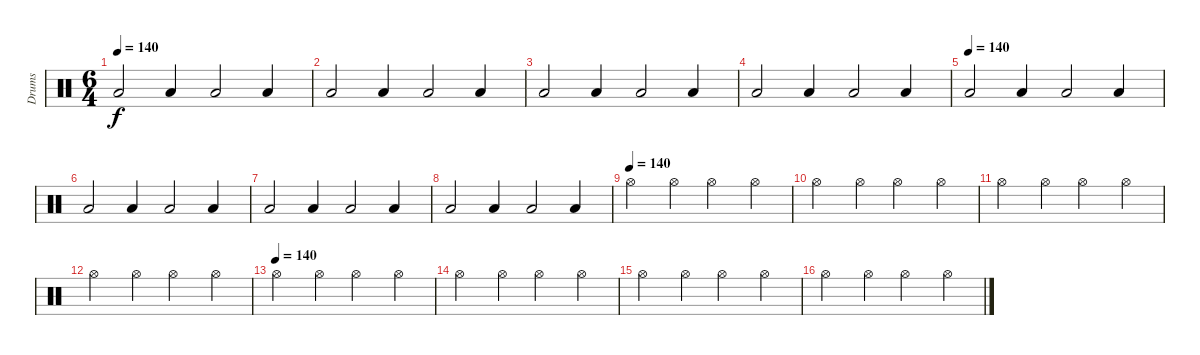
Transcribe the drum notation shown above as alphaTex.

\track ("Drums" "Drums") {instrument percussion}
\staff {score}
\articulation defaults
\ts (6 4)
\tempo 140
\clef neutral
\ks c "Low Floor Tom (hit)".2{dy f} "Low Floor Tom (hit)".4 "Low Floor Tom (hit)".2 "Low Floor Tom (hit)".4
|
"Low Floor Tom (hit)".2 "Low Floor Tom (hit)".4 "Low Floor Tom (hit)".2 "Low Floor Tom (hit)".4 |
"Low Floor Tom (hit)".2 "Low Floor Tom (hit)".4 "Low Floor Tom (hit)".2 "Low Floor Tom (hit)".4 |
"Low Floor Tom (hit)".2 "Low Floor Tom (hit)".4 "Low Floor Tom (hit)".2 "Low Floor Tom (hit)".4 |
\tempo (140)
"Low Floor Tom (hit)".2 "Low Floor Tom (hit)".4 "Low Floor Tom (hit)".2 "Low Floor Tom (hit)".4 |
"Low Floor Tom (hit)".2 "Low Floor Tom (hit)".4 "Low Floor Tom (hit)".2 "Low Floor Tom (hit)".4 |
"Low Floor Tom (hit)".2 "Low Floor Tom (hit)".4 "Low Floor Tom (hit)".2 "Low Floor Tom (hit)".4 |
"Low Floor Tom (hit)".2 "Low Floor Tom (hit)".4 "Low Floor Tom (hit)".2 "Low Floor Tom (hit)".4 |
\tempo (140)
"Hi-Hat (open)".2 "Hi-Hat (open)".4 "Hi-Hat (open)".2 "Hi-Hat (open)".4 |
"Hi-Hat (open)".2 "Hi-Hat (open)".4 "Hi-Hat (open)".2 "Hi-Hat (open)".4 |
"Hi-Hat (open)".2 "Hi-Hat (open)".4 "Hi-Hat (open)".2 "Hi-Hat (open)".4 |
"Hi-Hat (open)".2 "Hi-Hat (open)".4 "Hi-Hat (open)".2 "Hi-Hat (open)".4 |
\tempo (140)
"Hi-Hat (open)".2 "Hi-Hat (open)".4 "Hi-Hat (open)".2 "Hi-Hat (open)".4 |
"Hi-Hat (open)".2 "Hi-Hat (open)".4 "Hi-Hat (open)".2 "Hi-Hat (open)".4 |
"Hi-Hat (open)".2 "Hi-Hat (open)".4 "Hi-Hat (open)".2 "Hi-Hat (open)".4 |
"Hi-Hat (open)".2 "Hi-Hat (open)".4 "Hi-Hat (open)".2 "Hi-Hat (open)".4
